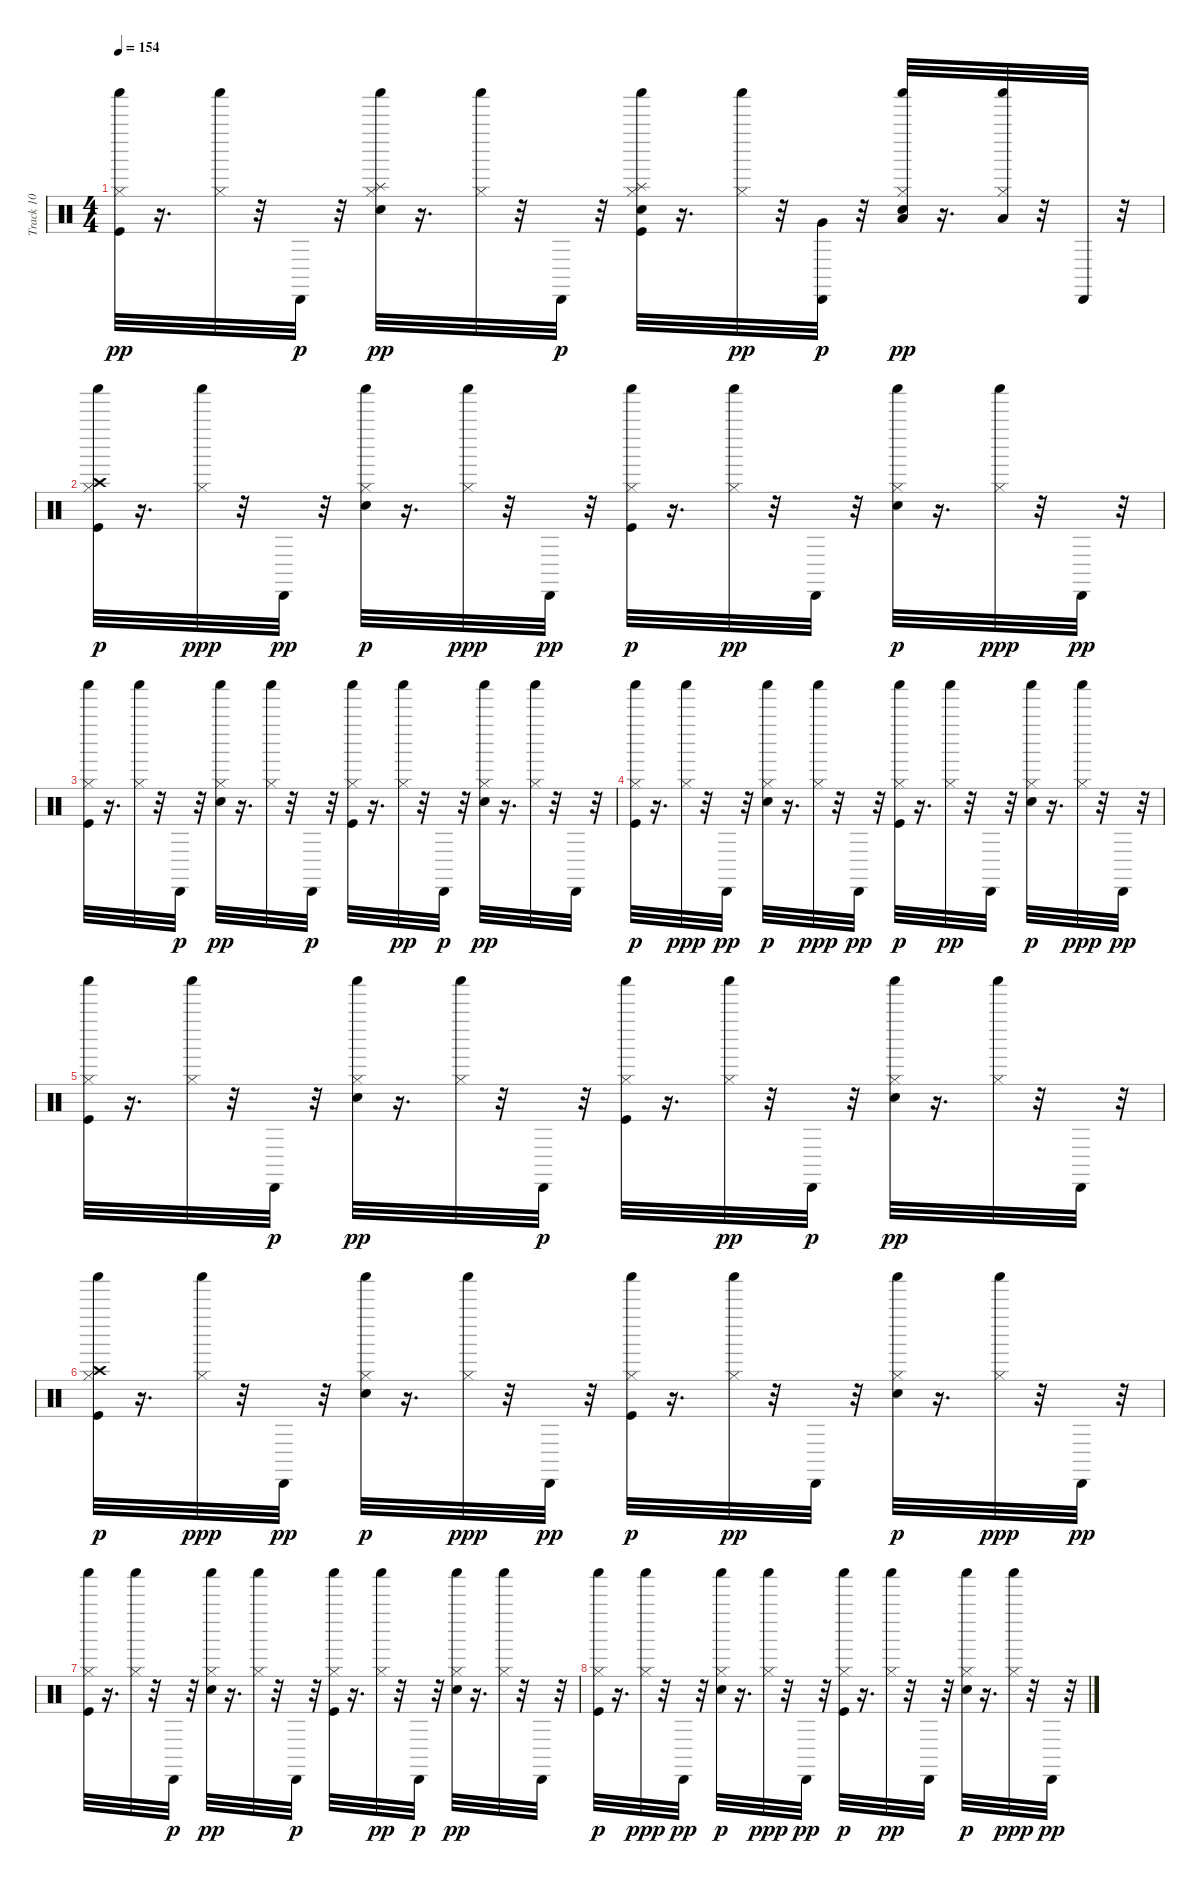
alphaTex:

\track ("Track 10" "Track 10") {instrument percussion}
\staff {score}
\articulation defaults
\ts (4 4)
\tempo 154
\clef neutral
\ks c
("Kick (hit)" "Hi-Hat (closed)" "Shaker (hit)").32{dy pp} r.16{d} ("Hi-Hat (closed)" "Shaker (hit)").32 r.32 "Cabasa (hit)".32{dy p} r.32 ("Electric Snare (hit)" "Hi-Hat (closed)" "Splash (hit)" "Shaker (hit)").32{dy pp} r.16{d} ("Hi-Hat (closed)" "Shaker (hit)").32 r.32 "Cabasa (hit)".32{dy p} r.32 ("Kick (hit)" "Electric Snare (hit)" "Hi-Hat (closed)" "Splash (hit)" "Shaker (hit)").32 r.16{d} ("Hi-Hat (closed)" "Shaker (hit)").32{dy pp} r.32 ("Very Low Tom (hit)" "Cabasa (hit)").32{dy p} r.32 ("Electric Snare (hit)" "Hi-Hat (closed)" "Low Tom (hit)" "Shaker (hit)").32{dy pp} r.16{d} ("Low Floor Tom (hit)" "Hi-Hat (closed)" "Shaker (hit)").32 r.32 "Cabasa (hit)".32 r.32 |
("Kick (hit)" "Hi-Hat (closed)" "Crash high (hit)" "Shaker (hit)").32{dy p} r.16{d} ("Hi-Hat (closed)" "Shaker (hit)").32{dy ppp} r.32 "Cabasa (hit)".32{dy pp} r.32 ("Electric Snare (hit)" "Hi-Hat (closed)" "Shaker (hit)").32{dy p} r.16{d} ("Hi-Hat (closed)" "Shaker (hit)").32{dy ppp} r.32 "Cabasa (hit)".32{dy pp} r.32 ("Kick (hit)" "Hi-Hat (closed)" "Shaker (hit)").32{dy p} r.16{d} ("Hi-Hat (closed)" "Shaker (hit)").32{dy pp} r.32 "Cabasa (hit)".32 r.32 ("Electric Snare (hit)" "Hi-Hat (closed)" "Shaker (hit)").32{dy p} r.16{d} ("Hi-Hat (closed)" "Shaker (hit)").32{dy ppp} r.32 "Cabasa (hit)".32{dy pp} r.32 |
("Kick (hit)" "Hi-Hat (closed)" "Shaker (hit)").32 r.16{d} ("Hi-Hat (closed)" "Shaker (hit)").32 r.32 "Cabasa (hit)".32{dy p} r.32 ("Electric Snare (hit)" "Hi-Hat (closed)" "Shaker (hit)").32{dy pp} r.16{d} ("Hi-Hat (closed)" "Shaker (hit)").32 r.32 "Cabasa (hit)".32{dy p} r.32 ("Kick (hit)" "Hi-Hat (closed)" "Shaker (hit)").32 r.16{d} ("Hi-Hat (closed)" "Shaker (hit)").32{dy pp} r.32 "Cabasa (hit)".32{dy p} r.32 ("Electric Snare (hit)" "Hi-Hat (closed)" "Shaker (hit)").32{dy pp} r.16{d} ("Hi-Hat (closed)" "Shaker (hit)").32 r.32 "Cabasa (hit)".32 r.32 |
("Kick (hit)" "Hi-Hat (closed)" "Shaker (hit)").32{dy p} r.16{d} ("Hi-Hat (closed)" "Shaker (hit)").32{dy ppp} r.32 "Cabasa (hit)".32{dy pp} r.32 ("Electric Snare (hit)" "Hi-Hat (closed)" "Shaker (hit)").32{dy p} r.16{d} ("Hi-Hat (closed)" "Shaker (hit)").32{dy ppp} r.32 "Cabasa (hit)".32{dy pp} r.32 ("Kick (hit)" "Hi-Hat (closed)" "Shaker (hit)").32{dy p} r.16{d} ("Hi-Hat (closed)" "Shaker (hit)").32{dy pp} r.32 "Cabasa (hit)".32 r.32 ("Electric Snare (hit)" "Hi-Hat (closed)" "Shaker (hit)").32{dy p} r.16{d} ("Hi-Hat (closed)" "Shaker (hit)").32{dy ppp} r.32 "Cabasa (hit)".32{dy pp} r.32 |
("Kick (hit)" "Hi-Hat (closed)" "Shaker (hit)").32 r.16{d} ("Hi-Hat (closed)" "Shaker (hit)").32 r.32 "Cabasa (hit)".32{dy p} r.32 ("Electric Snare (hit)" "Hi-Hat (closed)" "Shaker (hit)").32{dy pp} r.16{d} ("Hi-Hat (closed)" "Shaker (hit)").32 r.32 "Cabasa (hit)".32{dy p} r.32 ("Kick (hit)" "Hi-Hat (closed)" "Shaker (hit)").32 r.16{d} ("Hi-Hat (closed)" "Shaker (hit)").32{dy pp} r.32 "Cabasa (hit)".32{dy p} r.32 ("Electric Snare (hit)" "Hi-Hat (closed)" "Shaker (hit)").32{dy pp} r.16{d} ("Hi-Hat (closed)" "Shaker (hit)").32 r.32 "Cabasa (hit)".32 r.32 |
("Kick (hit)" "Hi-Hat (closed)" "Crash high (hit)" "Shaker (hit)").32{dy p} r.16{d} ("Hi-Hat (closed)" "Shaker (hit)").32{dy ppp} r.32 "Cabasa (hit)".32{dy pp} r.32 ("Electric Snare (hit)" "Hi-Hat (closed)" "Shaker (hit)").32{dy p} r.16{d} ("Hi-Hat (closed)" "Shaker (hit)").32{dy ppp} r.32 "Cabasa (hit)".32{dy pp} r.32 ("Kick (hit)" "Hi-Hat (closed)" "Shaker (hit)").32{dy p} r.16{d} ("Hi-Hat (closed)" "Shaker (hit)").32{dy pp} r.32 "Cabasa (hit)".32 r.32 ("Electric Snare (hit)" "Hi-Hat (closed)" "Shaker (hit)").32{dy p} r.16{d} ("Hi-Hat (closed)" "Shaker (hit)").32{dy ppp} r.32 "Cabasa (hit)".32{dy pp} r.32 |
("Kick (hit)" "Hi-Hat (closed)" "Shaker (hit)").32 r.16{d} ("Hi-Hat (closed)" "Shaker (hit)").32 r.32 "Cabasa (hit)".32{dy p} r.32 ("Electric Snare (hit)" "Hi-Hat (closed)" "Shaker (hit)").32{dy pp} r.16{d} ("Hi-Hat (closed)" "Shaker (hit)").32 r.32 "Cabasa (hit)".32{dy p} r.32 ("Kick (hit)" "Hi-Hat (closed)" "Shaker (hit)").32 r.16{d} ("Hi-Hat (closed)" "Shaker (hit)").32{dy pp} r.32 "Cabasa (hit)".32{dy p} r.32 ("Electric Snare (hit)" "Hi-Hat (closed)" "Shaker (hit)").32{dy pp} r.16{d} ("Hi-Hat (closed)" "Shaker (hit)").32 r.32 "Cabasa (hit)".32 r.32 |
("Kick (hit)" "Hi-Hat (closed)" "Shaker (hit)").32{dy p} r.16{d} ("Hi-Hat (closed)" "Shaker (hit)").32{dy ppp} r.32 "Cabasa (hit)".32{dy pp} r.32 ("Electric Snare (hit)" "Hi-Hat (closed)" "Shaker (hit)").32{dy p} r.16{d} ("Hi-Hat (closed)" "Shaker (hit)").32{dy ppp} r.32 "Cabasa (hit)".32{dy pp} r.32 ("Kick (hit)" "Hi-Hat (closed)" "Shaker (hit)").32{dy p} r.16{d} ("Hi-Hat (closed)" "Shaker (hit)").32{dy pp} r.32 "Cabasa (hit)".32 r.32 ("Electric Snare (hit)" "Hi-Hat (closed)" "Shaker (hit)").32{dy p} r.16{d} ("Hi-Hat (closed)" "Shaker (hit)").32{dy ppp} r.32 "Cabasa (hit)".32{dy pp} r.32
